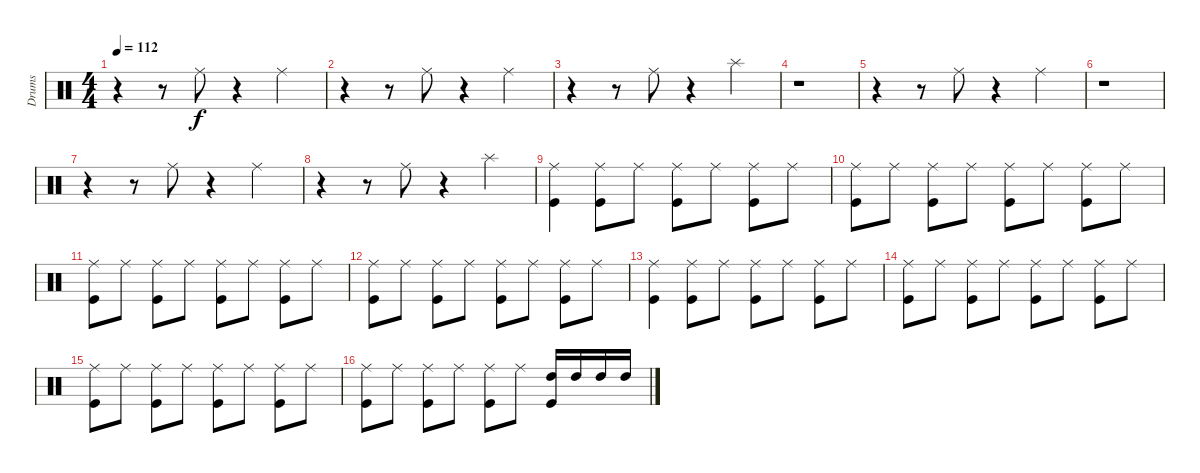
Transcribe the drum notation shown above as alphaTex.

\track ("Drums" "Drums") {instrument percussion}
\staff {score}
\articulation defaults
\ts (4 4)
\tempo 112
\clef neutral
\ks c
r.4{dy f} r.8 "Ride (middle)".8 r.4 "Ride (middle)".4 |
r.4 r.8 "Ride (middle)".8 r.4 "Ride (middle)".4 |
r.4 r.8 "Ride (middle)".8 r.4 "Splash (hit)".4 |
r.1 |
r.4 r.8 "Ride (middle)".8 r.4 "Ride (middle)".4 |
r.1 |
r.4 r.8 "Ride (middle)".8 r.4 "Ride (middle)".4 |
r.4 r.8 "Ride (middle)".8 r.4 "Splash (hit)".4 |
("Ride (middle)" "Kick (hit)").4 ("Ride (middle)" "Kick (hit)").8 "Ride (middle)".8 ("Ride (middle)" "Kick (hit)").8 "Ride (middle)".8 ("Ride (middle)" "Kick (hit)").8 "Ride (middle)".8 |
("Ride (middle)" "Kick (hit)").8 "Ride (middle)".8 ("Ride (middle)" "Kick (hit)").8 "Ride (middle)".8 ("Ride (middle)" "Kick (hit)").8 "Ride (middle)".8 ("Ride (middle)" "Kick (hit)").8 "Ride (middle)".8 |
("Ride (middle)" "Kick (hit)").8 "Ride (middle)".8 ("Ride (middle)" "Kick (hit)").8 "Ride (middle)".8 ("Ride (middle)" "Kick (hit)").8 "Ride (middle)".8 ("Ride (middle)" "Kick (hit)").8 "Ride (middle)".8 |
("Ride (middle)" "Kick (hit)").8 "Ride (middle)".8 ("Ride (middle)" "Kick (hit)").8 "Ride (middle)".8 ("Ride (middle)" "Kick (hit)").8 "Ride (middle)".8 ("Ride (middle)" "Kick (hit)").8 "Ride (middle)".8 |
("Ride (middle)" "Kick (hit)").4 ("Ride (middle)" "Kick (hit)").8 "Ride (middle)".8 ("Ride (middle)" "Kick (hit)").8 "Ride (middle)".8 ("Ride (middle)" "Kick (hit)").8 "Ride (middle)".8 |
("Ride (middle)" "Kick (hit)").8 "Ride (middle)".8 ("Ride (middle)" "Kick (hit)").8 "Ride (middle)".8 ("Ride (middle)" "Kick (hit)").8 "Ride (middle)".8 ("Ride (middle)" "Kick (hit)").8 "Ride (middle)".8 |
("Ride (middle)" "Kick (hit)").8 "Ride (middle)".8 ("Ride (middle)" "Kick (hit)").8 "Ride (middle)".8 ("Ride (middle)" "Kick (hit)").8 "Ride (middle)".8 ("Ride (middle)" "Kick (hit)").8 "Ride (middle)".8 |
("Ride (middle)" "Kick (hit)").8 "Ride (middle)".8 ("Ride (middle)" "Kick (hit)").8 "Ride (middle)".8 ("Ride (middle)" "Kick (hit)").8 "Ride (middle)".8 ("High Tom (hit)" "Kick (hit)").16 "High Tom (hit)".16 "High Tom (hit)".16 "High Tom (hit)".16
